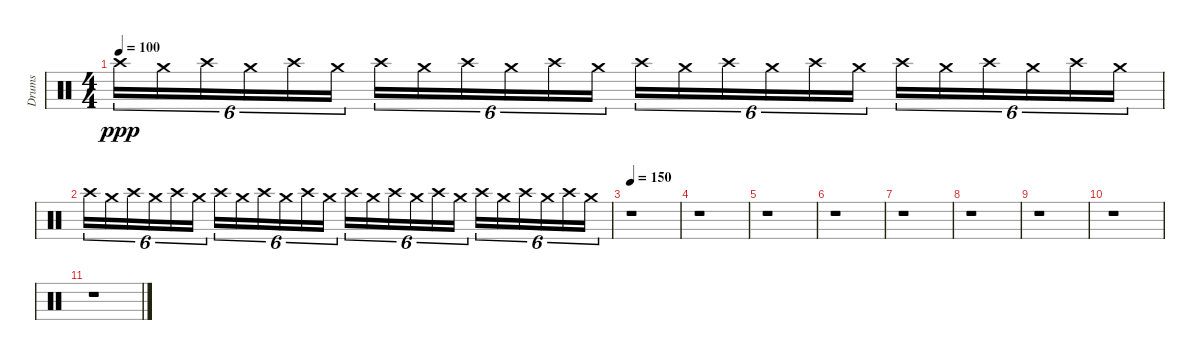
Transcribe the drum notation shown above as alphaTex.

\track ("Drums" "Drums") {instrument percussion}
\staff {score}
\articulation defaults
\ts (4 4)
\tempo 100
\clef neutral
\ks c "Crash high (hit)".16{tu (6 4) dy ppp} "Crash medium (hit)".16{tu (6 4)} "Crash high (hit)".16{tu (6 4)} "Crash medium (hit)".16{tu (6 4)} "Crash high (hit)".16{tu (6 4)} "Crash medium (hit)".16{tu (6 4)} "Crash high (hit)".16{tu (6 4)} "Crash medium (hit)".16{tu (6 4)} "Crash high (hit)".16{tu (6 4)} "Crash medium (hit)".16{tu (6 4)} "Crash high (hit)".16{tu (6 4)} "Crash medium (hit)".16{tu (6 4)} "Crash high (hit)".16{tu (6 4)} "Crash medium (hit)".16{tu (6 4)} "Crash high (hit)".16{tu (6 4)} "Crash medium (hit)".16{tu (6 4)} "Crash high (hit)".16{tu (6 4)} "Crash medium (hit)".16{tu (6 4)} "Crash high (hit)".16{tu (6 4)} "Crash medium (hit)".16{tu (6 4)} "Crash high (hit)".16{tu (6 4)} "Crash medium (hit)".16{tu (6 4)} "Crash high (hit)".16{tu (6 4)} "Crash medium (hit)".16{tu (6 4)}
|
"Crash high (hit)".16{tu (6 4)} "Crash medium (hit)".16{tu (6 4)} "Crash high (hit)".16{tu (6 4)} "Crash medium (hit)".16{tu (6 4)} "Crash high (hit)".16{tu (6 4)} "Crash medium (hit)".16{tu (6 4)} "Crash high (hit)".16{tu (6 4)} "Crash medium (hit)".16{tu (6 4)} "Crash high (hit)".16{tu (6 4)} "Crash medium (hit)".16{tu (6 4)} "Crash high (hit)".16{tu (6 4)} "Crash medium (hit)".16{tu (6 4)} "Crash high (hit)".16{tu (6 4)} "Crash medium (hit)".16{tu (6 4)} "Crash high (hit)".16{tu (6 4)} "Crash medium (hit)".16{tu (6 4)} "Crash high (hit)".16{tu (6 4)} "Crash medium (hit)".16{tu (6 4)} "Crash high (hit)".16{tu (6 4)} "Crash medium (hit)".16{tu (6 4)} "Crash high (hit)".16{tu (6 4)} "Crash medium (hit)".16{tu (6 4)} "Crash high (hit)".16{tu (6 4)} "Crash medium (hit)".16{tu (6 4)} |
\tempo 150
r.1 |
r.1 |
r.1 |
r.1 |
r.1 |
r.1 |
r.1 |
r.1 |
r.1
